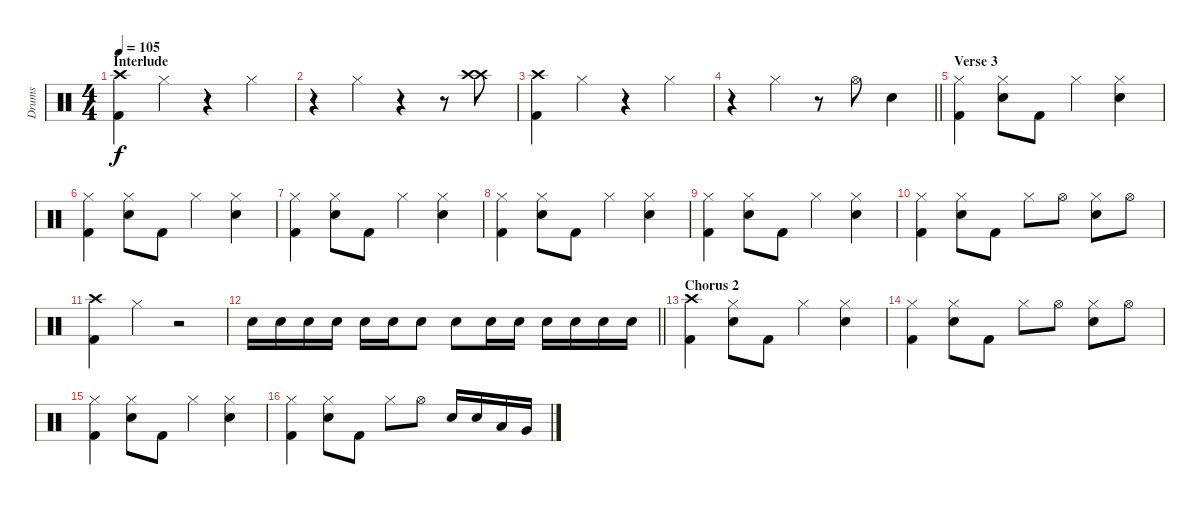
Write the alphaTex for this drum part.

\track ("Drums" "Drums") {instrument percussion}
\staff {score}
\articulation defaults
\ts (4 4)
\section ("" "Interlude")
\tempo 105
\clef neutral
\ks c
("Crash high (hit)" "Kick (hit) 2").4{dy f} "Hi-Hat (closed)".4 r.4 "Hi-Hat (closed)".4 |
r.4 "Hi-Hat (closed)".4 r.4 r.8 ("Crash high (hit)" "Crash high (hit)").8 |
("Crash high (hit)" "Kick (hit) 2").4 "Hi-Hat (closed)".4 r.4 "Hi-Hat (closed)".4 |
\barLineRight lightlight
r.4 "Hi-Hat (closed)".4 r.8 "Hi-Hat (open)".8 "Snare (hit) 2".4 |
\section ("" "Verse 3")
("Hi-Hat (closed)" "Kick (hit) 2").4 ("Hi-Hat (closed)" "Snare (hit) 2").8 "Kick (hit) 2".8 "Hi-Hat (closed)".4 ("Hi-Hat (closed)" "Snare (hit) 2").4 |
("Hi-Hat (closed)" "Kick (hit) 2").4 ("Hi-Hat (closed)" "Snare (hit) 2").8 "Kick (hit) 2".8 "Hi-Hat (closed)".4 ("Hi-Hat (closed)" "Snare (hit) 2").4 |
("Hi-Hat (closed)" "Kick (hit) 2").4 ("Hi-Hat (closed)" "Snare (hit) 2").8 "Kick (hit) 2".8 "Hi-Hat (closed)".4 ("Hi-Hat (closed)" "Snare (hit) 2").4 |
("Hi-Hat (closed)" "Kick (hit) 2").4 ("Hi-Hat (closed)" "Snare (hit) 2").8 "Kick (hit) 2".8 "Hi-Hat (closed)".4 ("Hi-Hat (closed)" "Snare (hit) 2").4 |
("Hi-Hat (closed)" "Kick (hit) 2").4 ("Hi-Hat (closed)" "Snare (hit) 2").8 "Kick (hit) 2".8 "Hi-Hat (closed)".4 ("Hi-Hat (closed)" "Snare (hit) 2").4 |
("Hi-Hat (closed)" "Kick (hit) 2").4 ("Hi-Hat (closed)" "Snare (hit) 2").8 "Kick (hit) 2".8 "Hi-Hat (closed)".8 "Hi-Hat (open)".8 ("Hi-Hat (closed)" "Snare (hit) 2").8 "Hi-Hat (open)".8 |
("Crash high (hit)" "Kick (hit) 2").4 "Hi-Hat (closed)".4 r.2 |
\barLineRight lightlight "Snare (hit) 2".16 "Snare (hit) 2".16 "Snare (hit) 2".16 "Snare (hit) 2".16 "Snare (hit) 2".16 "Snare (hit) 2".16 "Snare (hit) 2".8 "Snare (hit) 2".8 "Snare (hit) 2".16 "Snare (hit) 2".16 "Snare (hit) 2".16 "Snare (hit) 2".16 "Snare (hit) 2".16 "Snare (hit) 2".16
|
\section ("" "Chorus 2")
("Crash high (hit)" "Kick (hit) 2").4 ("Hi-Hat (closed)" "Snare (hit) 2").8 "Kick (hit) 2".8 "Hi-Hat (closed)".4 ("Hi-Hat (closed)" "Snare (hit) 2").4 |
("Hi-Hat (closed)" "Kick (hit) 2").4 ("Hi-Hat (closed)" "Snare (hit) 2").8 "Kick (hit) 2".8 "Hi-Hat (closed)".8 "Hi-Hat (open)".8 ("Hi-Hat (closed)" "Snare (hit) 2").8 "Hi-Hat (open)".8 |
("Hi-Hat (closed)" "Kick (hit) 2").4 ("Hi-Hat (closed)" "Snare (hit) 2").8 "Kick (hit) 2".8 "Hi-Hat (closed)".4 ("Hi-Hat (closed)" "Snare (hit) 2").4 |
("Hi-Hat (closed)" "Kick (hit) 2").4 ("Hi-Hat (closed)" "Snare (hit) 2").8 "Kick (hit) 2".8 "Hi-Hat (closed)".8 "Hi-Hat (open)".8 "Snare (hit) 2".16 "Snare (hit) 2".16 "Low Tom (hit)".16 "Very Low Tom (hit)".16
